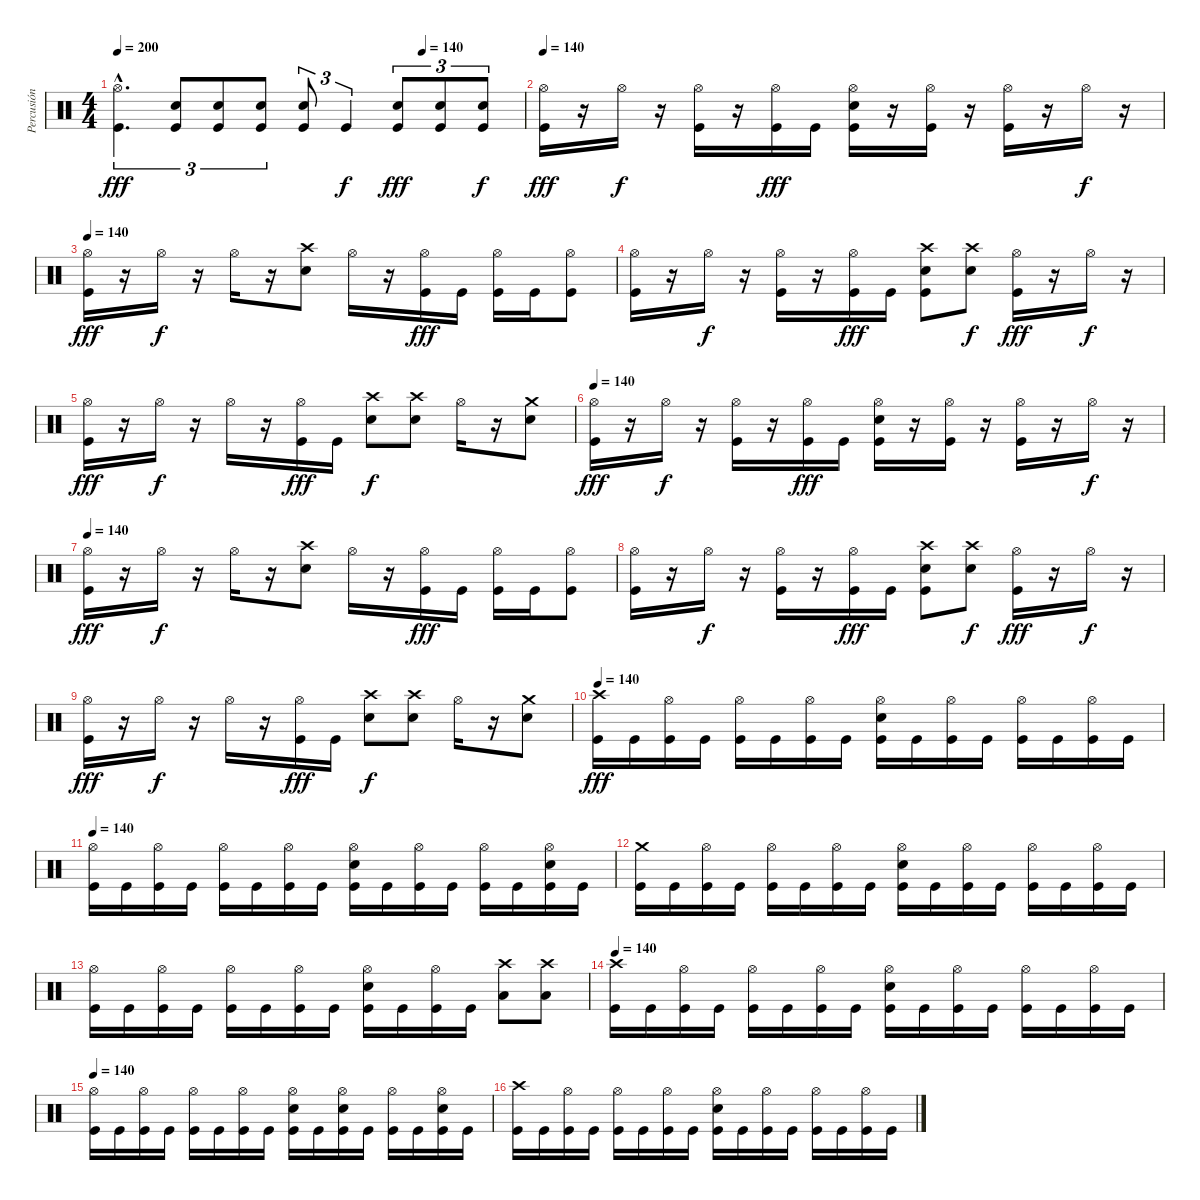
\track ("Percusión" "Percusión") {instrument percussion}
\staff {score}
\articulation defaults
\ts (4 4)
\tempo 200
\tempo (140 0.75)
\clef neutral
\ks c
("Hi-Hat (open)"{hac} "Kick (hit)"{hac}).4{d tu (3 2) dy fff} ("Electric Snare (hit)" "Kick (hit)").8{tu (3 2)} ("Electric Snare (hit)" "Kick (hit)").8{tu (3 2)} ("Electric Snare (hit)" "Kick (hit)").8{tu (3 2)} ("Electric Snare (hit)" "Kick (hit)").8{tu (3 2)} "Kick (hit)".4{tu (3 2) dy f} ("Electric Snare (hit)" "Kick (hit)").8{tu (3 2) dy fff} ("Electric Snare (hit)" "Kick (hit)").8{tu (3 2)} ("Electric Snare (hit)" "Kick (hit)").8{tu (3 2) dy f} |
\tempo 140
("Hi-Hat (open)" "Kick (hit)").16{dy fff} r.16 "Hi-Hat (open)".16{dy f} r.16 ("Hi-Hat (open)" "Kick (hit)").16 r.16 ("Hi-Hat (open)" "Kick (hit)").16{dy fff} "Kick (hit)".16 ("Hi-Hat (open)" "Electric Snare (hit)" "Kick (hit)").16 r.16 ("Hi-Hat (open)" "Kick (hit)").16 r.16 ("Hi-Hat (open)" "Kick (hit)").16 r.16 "Hi-Hat (open)".16{dy f} r.16 |
\tempo 140
("Hi-Hat (open)" "Kick (hit)").16{dy fff} r.16 "Hi-Hat (open)".16{dy f} r.16 "Hi-Hat (open)".16 r.16 ("Crash high (hit)" "Electric Snare (hit)").8 "Hi-Hat (open)".16 r.16 ("Hi-Hat (open)" "Kick (hit)").16{dy fff} "Kick (hit)".16 ("Hi-Hat (open)" "Kick (hit)").16 "Kick (hit)".16 ("Hi-Hat (open)" "Kick (hit)").8 |
("Hi-Hat (open)" "Kick (hit)").16 r.16 "Hi-Hat (open)".16{dy f} r.16 ("Hi-Hat (open)" "Kick (hit)").16 r.16 ("Hi-Hat (open)" "Kick (hit)").16{dy fff} "Kick (hit)".16 ("Crash high (hit)" "Electric Snare (hit)" "Kick (hit)").8 ("Crash high (hit)" "Electric Snare (hit)").8{dy f} ("Hi-Hat (open)" "Kick (hit)").16{dy fff} r.16 "Hi-Hat (open)".16{dy f} r.16 |
("Hi-Hat (open)" "Kick (hit)").16{dy fff} r.16 "Hi-Hat (open)".16{dy f} r.16 "Hi-Hat (open)".16 r.16 ("Hi-Hat (open)" "Kick (hit)").16{dy fff} "Kick (hit)".16 ("Crash high (hit)" "Electric Snare (hit)").8{dy f} ("Crash high (hit)" "Electric Snare (hit)").8 "Hi-Hat (open)".16 r.16 ("Crash medium (hit)" "Electric Snare (hit)").8 |
\tempo 140
("Hi-Hat (open)" "Kick (hit)").16{dy fff} r.16 "Hi-Hat (open)".16{dy f} r.16 ("Hi-Hat (open)" "Kick (hit)").16 r.16 ("Hi-Hat (open)" "Kick (hit)").16{dy fff} "Kick (hit)".16 ("Hi-Hat (open)" "Electric Snare (hit)" "Kick (hit)").16 r.16 ("Hi-Hat (open)" "Kick (hit)").16 r.16 ("Hi-Hat (open)" "Kick (hit)").16 r.16 "Hi-Hat (open)".16{dy f} r.16 |
\tempo 140
("Hi-Hat (open)" "Kick (hit)").16{dy fff} r.16 "Hi-Hat (open)".16{dy f} r.16 "Hi-Hat (open)".16 r.16 ("Crash high (hit)" "Electric Snare (hit)").8 "Hi-Hat (open)".16 r.16 ("Hi-Hat (open)" "Kick (hit)").16{dy fff} "Kick (hit)".16 ("Hi-Hat (open)" "Kick (hit)").16 "Kick (hit)".16 ("Hi-Hat (open)" "Kick (hit)").8 |
("Hi-Hat (open)" "Kick (hit)").16 r.16 "Hi-Hat (open)".16{dy f} r.16 ("Hi-Hat (open)" "Kick (hit)").16 r.16 ("Hi-Hat (open)" "Kick (hit)").16{dy fff} "Kick (hit)".16 ("Crash high (hit)" "Electric Snare (hit)" "Kick (hit)").8 ("Crash high (hit)" "Electric Snare (hit)").8{dy f} ("Hi-Hat (open)" "Kick (hit)").16{dy fff} r.16 "Hi-Hat (open)".16{dy f} r.16 |
("Hi-Hat (open)" "Kick (hit)").16{dy fff} r.16 "Hi-Hat (open)".16{dy f} r.16 "Hi-Hat (open)".16 r.16 ("Hi-Hat (open)" "Kick (hit)").16{dy fff} "Kick (hit)".16 ("Crash high (hit)" "Electric Snare (hit)").8{dy f} ("Crash high (hit)" "Electric Snare (hit)").8 "Hi-Hat (open)".16 r.16 ("Crash medium (hit)" "Electric Snare (hit)").8 |
\tempo 140
("Crash high (hit)" "Kick (hit)").16{dy fff} "Kick (hit)".16 ("Hi-Hat (open)" "Kick (hit)").16 "Kick (hit)".16 ("Hi-Hat (open)" "Kick (hit)").16 "Kick (hit)".16 ("Hi-Hat (open)" "Kick (hit)").16 "Kick (hit)".16 ("Hi-Hat (open)" "Electric Snare (hit)" "Kick (hit)").16 "Kick (hit)".16 ("Hi-Hat (open)" "Kick (hit)").16 "Kick (hit)".16 ("Hi-Hat (open)" "Kick (hit)").16 "Kick (hit)".16 ("Hi-Hat (open)" "Kick (hit)").16 "Kick (hit)".16 |
\tempo 140
("Hi-Hat (open)" "Kick (hit)").16 "Kick (hit)".16 ("Hi-Hat (open)" "Kick (hit)").16 "Kick (hit)".16 ("Hi-Hat (open)" "Kick (hit)").16 "Kick (hit)".16 ("Hi-Hat (open)" "Kick (hit)").16 "Kick (hit)".16 ("Hi-Hat (open)" "Electric Snare (hit)" "Kick (hit)").16 "Kick (hit)".16 ("Hi-Hat (open)" "Kick (hit)").16 "Kick (hit)".16 ("Hi-Hat (open)" "Kick (hit)").16 "Kick (hit)".16 ("Hi-Hat (open)" "Electric Snare (hit)" "Kick (hit)").16 "Kick (hit)".16 |
("Crash medium (hit)" "Kick (hit)").16 "Kick (hit)".16 ("Hi-Hat (open)" "Kick (hit)").16 "Kick (hit)".16 ("Hi-Hat (open)" "Kick (hit)").16 "Kick (hit)".16 ("Hi-Hat (open)" "Kick (hit)").16 "Kick (hit)".16 ("Hi-Hat (open)" "Electric Snare (hit)" "Kick (hit)").16 "Kick (hit)".16 ("Hi-Hat (open)" "Kick (hit)").16 "Kick (hit)".16 ("Hi-Hat (open)" "Kick (hit)").16 "Kick (hit)".16 ("Hi-Hat (open)" "Kick (hit)").16 "Kick (hit)".16 |
("Hi-Hat (open)" "Kick (hit)").16 "Kick (hit)".16 ("Hi-Hat (open)" "Kick (hit)").16 "Kick (hit)".16 ("Hi-Hat (open)" "Kick (hit)").16 "Kick (hit)".16 ("Hi-Hat (open)" "Kick (hit)").16 "Kick (hit)".16 ("Hi-Hat (open)" "Electric Snare (hit)" "Kick (hit)").16 "Kick (hit)".16 ("Hi-Hat (open)" "Kick (hit)").16 "Kick (hit)".16 ("Crash high (hit)" "Low Tom (hit)").8 ("Crash high (hit)" "Low Tom (hit)").8 |
\tempo 140
("Crash high (hit)" "Kick (hit)").16 "Kick (hit)".16 ("Hi-Hat (open)" "Kick (hit)").16 "Kick (hit)".16 ("Hi-Hat (open)" "Kick (hit)").16 "Kick (hit)".16 ("Hi-Hat (open)" "Kick (hit)").16 "Kick (hit)".16 ("Hi-Hat (open)" "Electric Snare (hit)" "Kick (hit)").16 "Kick (hit)".16 ("Hi-Hat (open)" "Kick (hit)").16 "Kick (hit)".16 ("Hi-Hat (open)" "Kick (hit)").16 "Kick (hit)".16 ("Hi-Hat (open)" "Kick (hit)").16 "Kick (hit)".16 |
\tempo 140
("Hi-Hat (open)" "Kick (hit)").16 "Kick (hit)".16 ("Hi-Hat (open)" "Kick (hit)").16 "Kick (hit)".16 ("Hi-Hat (open)" "Kick (hit)").16 "Kick (hit)".16 ("Hi-Hat (open)" "Kick (hit)").16 "Kick (hit)".16 ("Hi-Hat (open)" "Electric Snare (hit)" "Kick (hit)").16 "Kick (hit)".16 ("Hi-Hat (open)" "Electric Snare (hit)" "Kick (hit)").16 "Kick (hit)".16 ("Hi-Hat (open)" "Kick (hit)").16 "Kick (hit)".16 ("Hi-Hat (open)" "Electric Snare (hit)" "Kick (hit)").16 "Kick (hit)".16 |
("Crash high (hit)" "Kick (hit)").16 "Kick (hit)".16 ("Hi-Hat (open)" "Kick (hit)").16 "Kick (hit)".16 ("Hi-Hat (open)" "Kick (hit)").16 "Kick (hit)".16 ("Hi-Hat (open)" "Kick (hit)").16 "Kick (hit)".16 ("Hi-Hat (open)" "Electric Snare (hit)" "Kick (hit)").16 "Kick (hit)".16 ("Hi-Hat (open)" "Kick (hit)").16 "Kick (hit)".16 ("Hi-Hat (open)" "Kick (hit)").16 "Kick (hit)".16 ("Hi-Hat (open)" "Kick (hit)").16 "Kick (hit)".16
